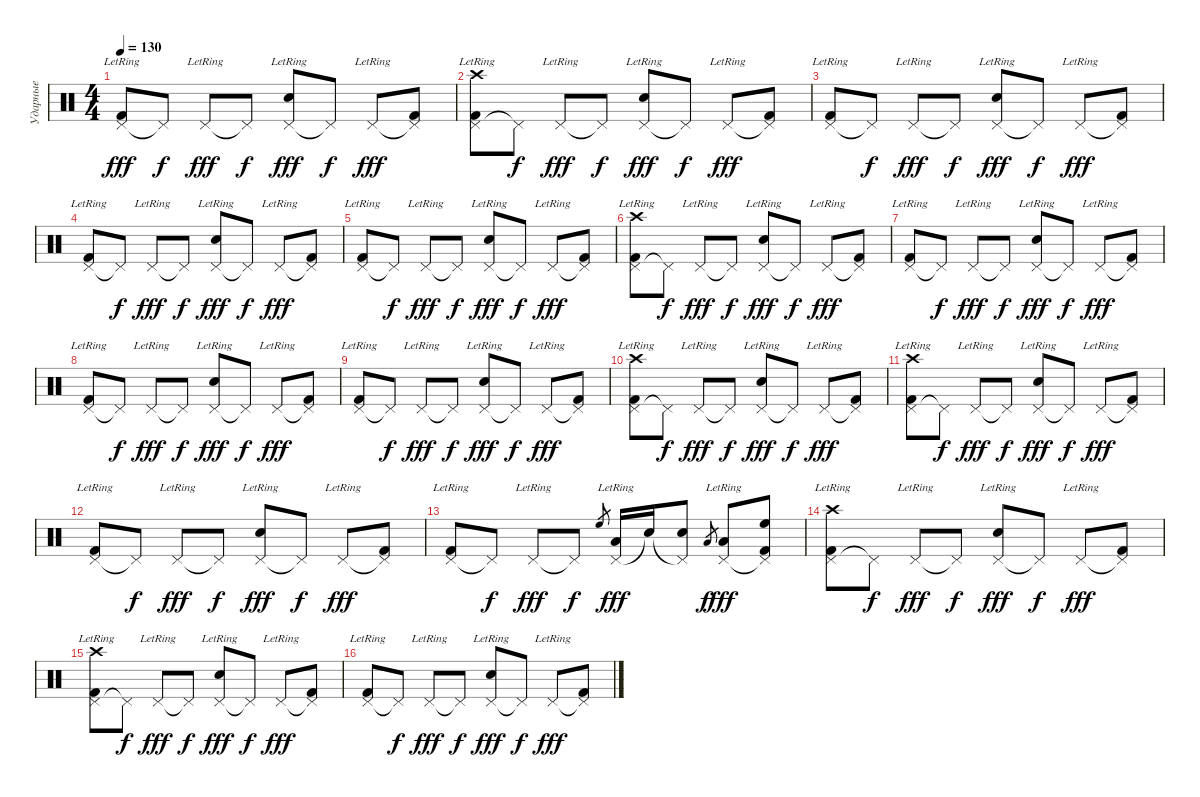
\track ("Ударные" "Ударные") {instrument percussion}
\staff {score}
\articulation defaults
\ts (4 4)
\tempo 130
\clef neutral
\ks c
("Pedal Hi-Hat (hit)"{lr} "Kick (hit) 2").8{dy fff} "Pedal Hi-Hat (hit)"{t}.8{dy f} "Pedal Hi-Hat (hit)"{lr}.8{dy fff} "Pedal Hi-Hat (hit)"{t}.8{dy f} ("Pedal Hi-Hat (hit)"{lr} "Snare (hit) 2").8{dy fff} "Pedal Hi-Hat (hit)"{t}.8{dy f} "Pedal Hi-Hat (hit)"{lr}.8{dy fff} ("Pedal Hi-Hat (hit)"{t} "Kick (hit) 2").8 |
("Pedal Hi-Hat (hit)"{lr} "Kick (hit) 2" "Crash high (hit)"{lr}).8 "Pedal Hi-Hat (hit)"{t}.8{dy f} "Pedal Hi-Hat (hit)"{lr}.8{dy fff} "Pedal Hi-Hat (hit)"{t}.8{dy f} ("Pedal Hi-Hat (hit)"{lr} "Snare (hit) 2").8{dy fff} "Pedal Hi-Hat (hit)"{t}.8{dy f} "Pedal Hi-Hat (hit)"{lr}.8{dy fff} ("Pedal Hi-Hat (hit)"{t} "Kick (hit) 2").8 |
("Pedal Hi-Hat (hit)"{lr} "Kick (hit) 2").8 "Pedal Hi-Hat (hit)"{t}.8{dy f} "Pedal Hi-Hat (hit)"{lr}.8{dy fff} "Pedal Hi-Hat (hit)"{t}.8{dy f} ("Pedal Hi-Hat (hit)"{lr} "Snare (hit) 2").8{dy fff} "Pedal Hi-Hat (hit)"{t}.8{dy f} "Pedal Hi-Hat (hit)"{lr}.8{dy fff} ("Pedal Hi-Hat (hit)"{t} "Kick (hit) 2").8 |
("Pedal Hi-Hat (hit)"{lr} "Kick (hit) 2").8 "Pedal Hi-Hat (hit)"{t}.8{dy f} "Pedal Hi-Hat (hit)"{lr}.8{dy fff} "Pedal Hi-Hat (hit)"{t}.8{dy f} ("Pedal Hi-Hat (hit)"{lr} "Snare (hit) 2").8{dy fff} "Pedal Hi-Hat (hit)"{t}.8{dy f} "Pedal Hi-Hat (hit)"{lr}.8{dy fff} ("Pedal Hi-Hat (hit)"{t} "Kick (hit) 2").8 |
("Pedal Hi-Hat (hit)"{lr} "Kick (hit) 2").8 "Pedal Hi-Hat (hit)"{t}.8{dy f} "Pedal Hi-Hat (hit)"{lr}.8{dy fff} "Pedal Hi-Hat (hit)"{t}.8{dy f} ("Pedal Hi-Hat (hit)"{lr} "Snare (hit) 2").8{dy fff} "Pedal Hi-Hat (hit)"{t}.8{dy f} "Pedal Hi-Hat (hit)"{lr}.8{dy fff} ("Pedal Hi-Hat (hit)"{t} "Kick (hit) 2").8 |
("Pedal Hi-Hat (hit)"{lr} "Kick (hit) 2" "Crash high (hit)"{lr}).8 "Pedal Hi-Hat (hit)"{t}.8{dy f} "Pedal Hi-Hat (hit)"{lr}.8{dy fff} "Pedal Hi-Hat (hit)"{t}.8{dy f} ("Pedal Hi-Hat (hit)"{lr} "Snare (hit) 2").8{dy fff} "Pedal Hi-Hat (hit)"{t}.8{dy f} "Pedal Hi-Hat (hit)"{lr}.8{dy fff} ("Pedal Hi-Hat (hit)"{t} "Kick (hit) 2").8 |
("Pedal Hi-Hat (hit)"{lr} "Kick (hit) 2").8 "Pedal Hi-Hat (hit)"{t}.8{dy f} "Pedal Hi-Hat (hit)"{lr}.8{dy fff} "Pedal Hi-Hat (hit)"{t}.8{dy f} ("Pedal Hi-Hat (hit)"{lr} "Snare (hit) 2").8{dy fff} "Pedal Hi-Hat (hit)"{t}.8{dy f} "Pedal Hi-Hat (hit)"{lr}.8{dy fff} ("Pedal Hi-Hat (hit)"{t} "Kick (hit) 2").8 |
("Pedal Hi-Hat (hit)"{lr} "Kick (hit) 2").8 "Pedal Hi-Hat (hit)"{t}.8{dy f} "Pedal Hi-Hat (hit)"{lr}.8{dy fff} "Pedal Hi-Hat (hit)"{t}.8{dy f} ("Pedal Hi-Hat (hit)"{lr} "Snare (hit) 2").8{dy fff} "Pedal Hi-Hat (hit)"{t}.8{dy f} "Pedal Hi-Hat (hit)"{lr}.8{dy fff} ("Pedal Hi-Hat (hit)"{t} "Kick (hit) 2").8 |
("Pedal Hi-Hat (hit)"{lr} "Kick (hit) 2").8 "Pedal Hi-Hat (hit)"{t}.8{dy f} "Pedal Hi-Hat (hit)"{lr}.8{dy fff} "Pedal Hi-Hat (hit)"{t}.8{dy f} ("Pedal Hi-Hat (hit)"{lr} "Snare (hit) 2").8{dy fff} "Pedal Hi-Hat (hit)"{t}.8{dy f} "Pedal Hi-Hat (hit)"{lr}.8{dy fff} ("Pedal Hi-Hat (hit)"{t} "Kick (hit) 2").8 |
("Pedal Hi-Hat (hit)"{lr} "Kick (hit) 2" "Crash high (hit)"{lr}).8 "Pedal Hi-Hat (hit)"{t}.8{dy f} "Pedal Hi-Hat (hit)"{lr}.8{dy fff} "Pedal Hi-Hat (hit)"{t}.8{dy f} ("Pedal Hi-Hat (hit)"{lr} "Snare (hit) 2").8{dy fff} "Pedal Hi-Hat (hit)"{t}.8{dy f} "Pedal Hi-Hat (hit)"{lr}.8{dy fff} ("Pedal Hi-Hat (hit)"{t} "Kick (hit) 2").8 |
("Pedal Hi-Hat (hit)"{lr} "Kick (hit) 2" "Crash high (hit)"{lr}).8 "Pedal Hi-Hat (hit)"{t}.8{dy f} "Pedal Hi-Hat (hit)"{lr}.8{dy fff} "Pedal Hi-Hat (hit)"{t}.8{dy f} ("Pedal Hi-Hat (hit)"{lr} "Snare (hit) 2").8{dy fff} "Pedal Hi-Hat (hit)"{t}.8{dy f} "Pedal Hi-Hat (hit)"{lr}.8{dy fff} ("Pedal Hi-Hat (hit)"{t} "Kick (hit) 2").8 |
("Pedal Hi-Hat (hit)"{lr} "Kick (hit) 2").8 "Pedal Hi-Hat (hit)"{t}.8{dy f} "Pedal Hi-Hat (hit)"{lr}.8{dy fff} "Pedal Hi-Hat (hit)"{t}.8{dy f} ("Pedal Hi-Hat (hit)"{lr} "Snare (hit) 2").8{dy fff} "Pedal Hi-Hat (hit)"{t}.8{dy f} "Pedal Hi-Hat (hit)"{lr}.8{dy fff} ("Pedal Hi-Hat (hit)"{t} "Kick (hit) 2").8 |
("Pedal Hi-Hat (hit)"{lr} "Kick (hit) 2").8 "Pedal Hi-Hat (hit)"{t}.8{dy f} "Pedal Hi-Hat (hit)"{lr}.8{dy fff} "Pedal Hi-Hat (hit)"{t}.8{dy f} "High Floor Tom (hit)".8{gr} ("Pedal Hi-Hat (hit)"{lr} "Low Floor Tom (hit)").16{dy fff} "Snare (hit)"{t}.16 ("Pedal Hi-Hat (hit)"{t} "Snare (hit) 2").8 "Low Floor Tom (hit)".8{gr dy f} ("Pedal Hi-Hat (hit)"{lr} "Low Floor Tom (hit)").8{dy fff} ("Pedal Hi-Hat (hit)"{t} "Kick (hit) 2" "High Floor Tom (hit)").8 |
("Pedal Hi-Hat (hit)"{lr} "Kick (hit) 2" "Crash high (hit)"{lr}).8 "Pedal Hi-Hat (hit)"{t}.8{dy f} "Pedal Hi-Hat (hit)"{lr}.8{dy fff} "Pedal Hi-Hat (hit)"{t}.8{dy f} ("Pedal Hi-Hat (hit)"{lr} "Snare (hit) 2").8{dy fff} "Pedal Hi-Hat (hit)"{t}.8{dy f} "Pedal Hi-Hat (hit)"{lr}.8{dy fff} ("Pedal Hi-Hat (hit)"{t} "Kick (hit) 2").8 |
("Pedal Hi-Hat (hit)"{lr} "Kick (hit) 2" "Crash high (hit)"{lr}).8 "Pedal Hi-Hat (hit)"{t}.8{dy f} "Pedal Hi-Hat (hit)"{lr}.8{dy fff} "Pedal Hi-Hat (hit)"{t}.8{dy f} ("Pedal Hi-Hat (hit)"{lr} "Snare (hit) 2").8{dy fff} "Pedal Hi-Hat (hit)"{t}.8{dy f} "Pedal Hi-Hat (hit)"{lr}.8{dy fff} ("Pedal Hi-Hat (hit)"{t} "Kick (hit) 2").8 |
("Pedal Hi-Hat (hit)"{lr} "Kick (hit) 2").8 "Pedal Hi-Hat (hit)"{t}.8{dy f} "Pedal Hi-Hat (hit)"{lr}.8{dy fff} "Pedal Hi-Hat (hit)"{t}.8{dy f} ("Pedal Hi-Hat (hit)"{lr} "Snare (hit) 2").8{dy fff} "Pedal Hi-Hat (hit)"{t}.8{dy f} "Pedal Hi-Hat (hit)"{lr}.8{dy fff} ("Pedal Hi-Hat (hit)"{t} "Kick (hit) 2").8
